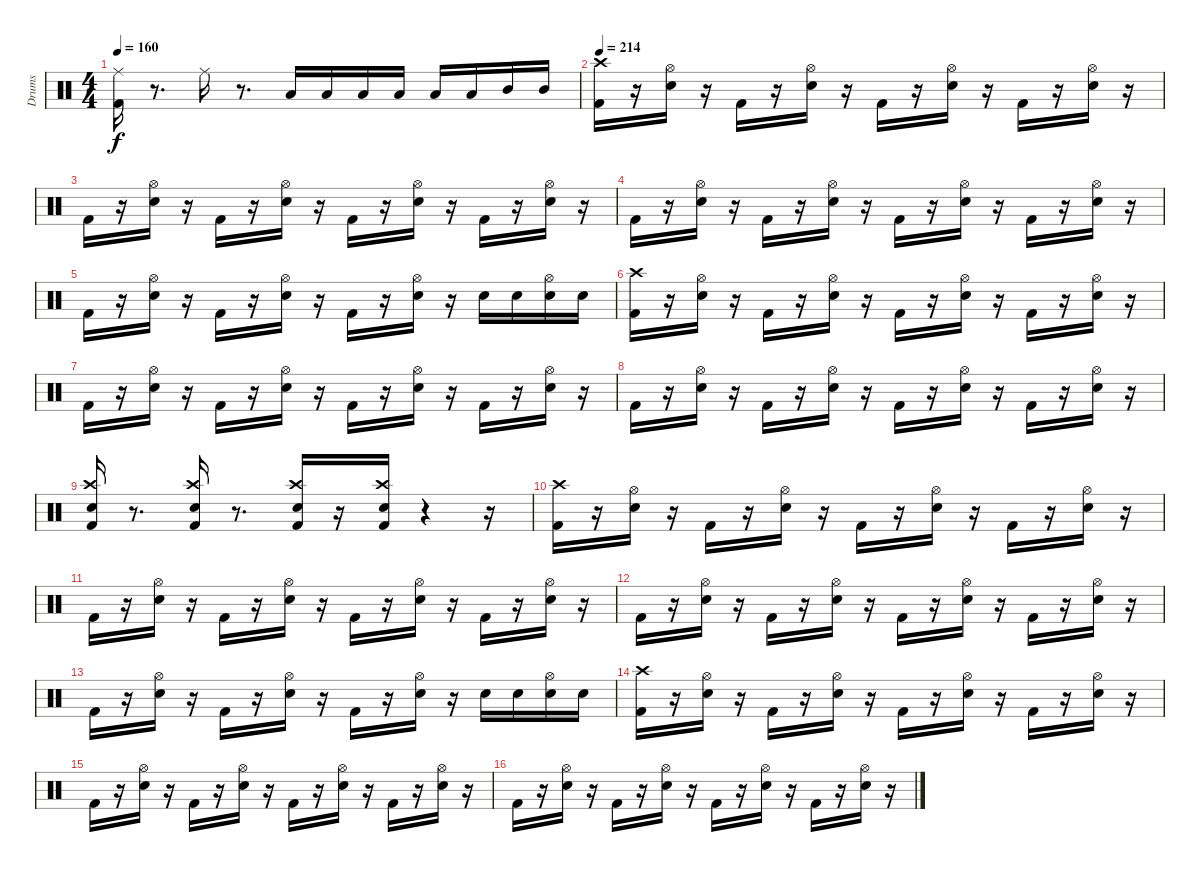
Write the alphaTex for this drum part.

\track ("Drums               " "Drums     ") {instrument percussion}
\staff {score}
\articulation defaults
\ts (4 4)
\tempo 160
\clef neutral
\ks c
("Kick (hit) 2" "Ride (middle)").16{dy f} r.8{d} "Ride (middle)".16 r.8{d} "Low Floor Tom (hit)".16 "Low Floor Tom (hit)".16 "Low Floor Tom (hit)".16 "Low Tom (hit)".16 "Low Tom (hit)".16 "Low Tom (hit)".16 "Mid Tom (hit)".16 "Mid Tom (hit)".16 |
\tempo 214
("Kick (hit) 2" "Crash high (hit)").16 r.16 ("Snare (hit) 2" "Hi-Hat (open)").16 r.16 "Kick (hit) 2".16 r.16 ("Snare (hit) 2" "Hi-Hat (open)").16 r.16 "Kick (hit) 2".16 r.16 ("Snare (hit) 2" "Hi-Hat (open)").16 r.16 "Kick (hit) 2".16 r.16 ("Snare (hit) 2" "Hi-Hat (open)").16 r.16 |
"Kick (hit) 2".16 r.16 ("Snare (hit) 2" "Hi-Hat (open)").16 r.16 "Kick (hit) 2".16 r.16 ("Snare (hit) 2" "Hi-Hat (open)").16 r.16 "Kick (hit) 2".16 r.16 ("Snare (hit) 2" "Hi-Hat (open)").16 r.16 "Kick (hit) 2".16 r.16 ("Snare (hit) 2" "Hi-Hat (open)").16 r.16 |
"Kick (hit) 2".16 r.16 ("Snare (hit) 2" "Hi-Hat (open)").16 r.16 "Kick (hit) 2".16 r.16 ("Snare (hit) 2" "Hi-Hat (open)").16 r.16 "Kick (hit) 2".16 r.16 ("Snare (hit) 2" "Hi-Hat (open)").16 r.16 "Kick (hit) 2".16 r.16 ("Snare (hit) 2" "Hi-Hat (open)").16 r.16 |
"Kick (hit) 2".16 r.16 ("Snare (hit) 2" "Hi-Hat (open)").16 r.16 "Kick (hit) 2".16 r.16 ("Snare (hit) 2" "Hi-Hat (open)").16 r.16 "Kick (hit) 2".16 r.16 ("Snare (hit) 2" "Hi-Hat (open)").16 r.16 "Snare (hit) 2".16 "Snare (hit) 2".16 ("Snare (hit) 2" "Hi-Hat (open)").16 "Snare (hit) 2".16 |
("Kick (hit) 2" "Crash high (hit)").16 r.16 ("Snare (hit) 2" "Hi-Hat (open)").16 r.16 "Kick (hit) 2".16 r.16 ("Snare (hit) 2" "Hi-Hat (open)").16 r.16 "Kick (hit) 2".16 r.16 ("Snare (hit) 2" "Hi-Hat (open)").16 r.16 "Kick (hit) 2".16 r.16 ("Snare (hit) 2" "Hi-Hat (open)").16 r.16 |
"Kick (hit) 2".16 r.16 ("Snare (hit) 2" "Hi-Hat (open)").16 r.16 "Kick (hit) 2".16 r.16 ("Snare (hit) 2" "Hi-Hat (open)").16 r.16 "Kick (hit) 2".16 r.16 ("Snare (hit) 2" "Hi-Hat (open)").16 r.16 "Kick (hit) 2".16 r.16 ("Snare (hit) 2" "Hi-Hat (open)").16 r.16 |
"Kick (hit) 2".16 r.16 ("Snare (hit) 2" "Hi-Hat (open)").16 r.16 "Kick (hit) 2".16 r.16 ("Snare (hit) 2" "Hi-Hat (open)").16 r.16 "Kick (hit) 2".16 r.16 ("Snare (hit) 2" "Hi-Hat (open)").16 r.16 "Kick (hit) 2".16 r.16 ("Snare (hit) 2" "Hi-Hat (open)").16 r.16 |
("Kick (hit) 2" "Snare (hit) 2" "Crash high (hit)").16 r.8{d} ("Kick (hit) 2" "Snare (hit) 2" "Crash high (hit)").16 r.8{d} ("Kick (hit) 2" "Snare (hit) 2" "Crash high (hit)").16 r.16 ("Kick (hit) 2" "Snare (hit) 2" "Crash high (hit)").16 r.4 r.16 |
("Kick (hit) 2" "Crash high (hit)").16 r.16 ("Snare (hit) 2" "Hi-Hat (open)").16 r.16 "Kick (hit) 2".16 r.16 ("Snare (hit) 2" "Hi-Hat (open)").16 r.16 "Kick (hit) 2".16 r.16 ("Snare (hit) 2" "Hi-Hat (open)").16 r.16 "Kick (hit) 2".16 r.16 ("Snare (hit) 2" "Hi-Hat (open)").16 r.16 |
"Kick (hit) 2".16 r.16 ("Snare (hit) 2" "Hi-Hat (open)").16 r.16 "Kick (hit) 2".16 r.16 ("Snare (hit) 2" "Hi-Hat (open)").16 r.16 "Kick (hit) 2".16 r.16 ("Snare (hit) 2" "Hi-Hat (open)").16 r.16 "Kick (hit) 2".16 r.16 ("Snare (hit) 2" "Hi-Hat (open)").16 r.16 |
"Kick (hit) 2".16 r.16 ("Snare (hit) 2" "Hi-Hat (open)").16 r.16 "Kick (hit) 2".16 r.16 ("Snare (hit) 2" "Hi-Hat (open)").16 r.16 "Kick (hit) 2".16 r.16 ("Snare (hit) 2" "Hi-Hat (open)").16 r.16 "Kick (hit) 2".16 r.16 ("Snare (hit) 2" "Hi-Hat (open)").16 r.16 |
"Kick (hit) 2".16 r.16 ("Snare (hit) 2" "Hi-Hat (open)").16 r.16 "Kick (hit) 2".16 r.16 ("Snare (hit) 2" "Hi-Hat (open)").16 r.16 "Kick (hit) 2".16 r.16 ("Snare (hit) 2" "Hi-Hat (open)").16 r.16 "Snare (hit) 2".16 "Snare (hit) 2".16 ("Snare (hit) 2" "Hi-Hat (open)").16 "Snare (hit) 2".16 |
("Kick (hit) 2" "Crash high (hit)").16 r.16 ("Snare (hit) 2" "Hi-Hat (open)").16 r.16 "Kick (hit) 2".16 r.16 ("Snare (hit) 2" "Hi-Hat (open)").16 r.16 "Kick (hit) 2".16 r.16 ("Snare (hit) 2" "Hi-Hat (open)").16 r.16 "Kick (hit) 2".16 r.16 ("Snare (hit) 2" "Hi-Hat (open)").16 r.16 |
"Kick (hit) 2".16 r.16 ("Snare (hit) 2" "Hi-Hat (open)").16 r.16 "Kick (hit) 2".16 r.16 ("Snare (hit) 2" "Hi-Hat (open)").16 r.16 "Kick (hit) 2".16 r.16 ("Snare (hit) 2" "Hi-Hat (open)").16 r.16 "Kick (hit) 2".16 r.16 ("Snare (hit) 2" "Hi-Hat (open)").16 r.16 |
"Kick (hit) 2".16 r.16 ("Snare (hit) 2" "Hi-Hat (open)").16 r.16 "Kick (hit) 2".16 r.16 ("Snare (hit) 2" "Hi-Hat (open)").16 r.16 "Kick (hit) 2".16 r.16 ("Snare (hit) 2" "Hi-Hat (open)").16 r.16 "Kick (hit) 2".16 r.16 ("Snare (hit) 2" "Hi-Hat (open)").16 r.16
